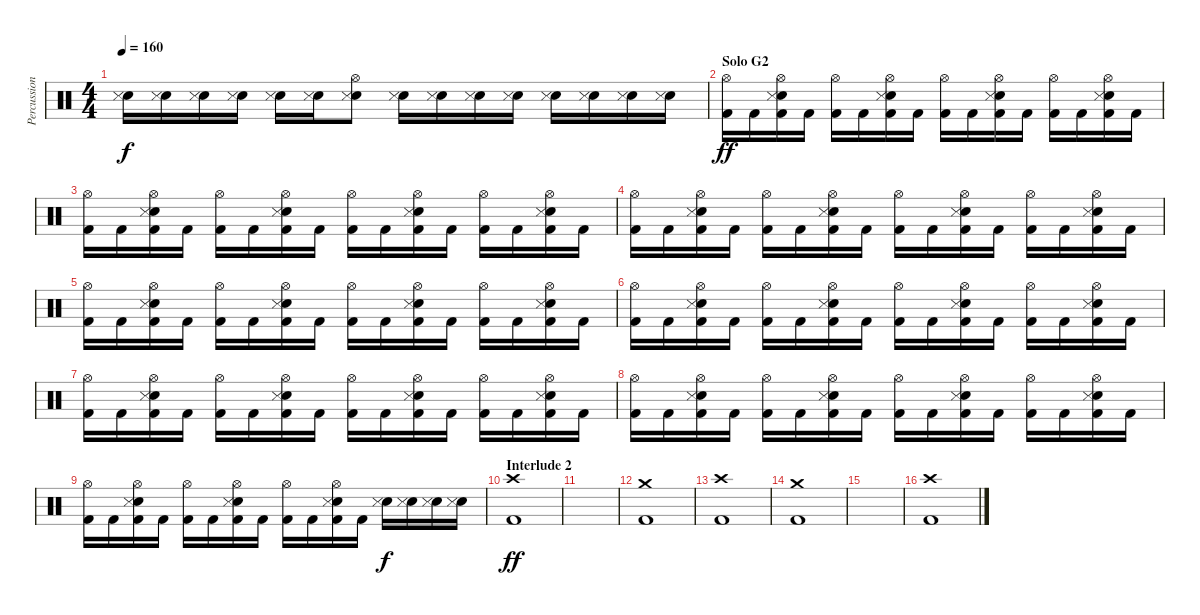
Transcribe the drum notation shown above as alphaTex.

\track ("Percussions" "Percussion") {instrument percussion}
\staff {score}
\articulation defaults
\ts (4 4)
\tempo 160
\clef neutral
\ks c
("Electric Snare (hit)" "Snare (side stick) 3").16{dy f} ("Electric Snare (hit)" "Snare (side stick) 3").16 ("Electric Snare (hit)" "Snare (side stick) 3").16 ("Electric Snare (hit)" "Snare (side stick) 3").16 ("Electric Snare (hit)" "Snare (side stick) 3").16 ("Electric Snare (hit)" "Snare (side stick) 3").16 ("Hi-Hat (open)" "Electric Snare (hit)" "Snare (side stick) 3").8 ("Electric Snare (hit)" "Snare (side stick) 3").16 ("Electric Snare (hit)" "Snare (side stick) 3").16 ("Electric Snare (hit)" "Snare (side stick) 3").16 ("Electric Snare (hit)" "Snare (side stick) 3").16 ("Electric Snare (hit)" "Snare (side stick) 3").16 ("Electric Snare (hit)" "Snare (side stick) 3").16 ("Electric Snare (hit)" "Snare (side stick) 3").16 ("Electric Snare (hit)" "Snare (side stick) 3").16 |
\section ("" "Solo G2")
("Hi-Hat (open)" "Kick (hit) 2").16{dy ff} "Kick (hit) 2".16 ("Hi-Hat (open)" "Electric Snare (hit)" "Snare (side stick) 3" "Kick (hit) 2").16 "Kick (hit) 2".16 ("Hi-Hat (open)" "Kick (hit) 2").16 "Kick (hit) 2".16 ("Hi-Hat (open)" "Electric Snare (hit)" "Snare (side stick) 3" "Kick (hit) 2").16 "Kick (hit) 2".16 ("Hi-Hat (open)" "Kick (hit) 2").16 "Kick (hit) 2".16 ("Hi-Hat (open)" "Electric Snare (hit)" "Snare (side stick) 3" "Kick (hit) 2").16 "Kick (hit) 2".16 ("Hi-Hat (open)" "Kick (hit) 2").16 "Kick (hit) 2".16 ("Hi-Hat (open)" "Electric Snare (hit)" "Snare (side stick) 3" "Kick (hit) 2").16 "Kick (hit) 2".16 |
("Hi-Hat (open)" "Kick (hit) 2").16 "Kick (hit) 2".16 ("Hi-Hat (open)" "Electric Snare (hit)" "Snare (side stick) 3" "Kick (hit) 2").16 "Kick (hit) 2".16 ("Hi-Hat (open)" "Kick (hit) 2").16 "Kick (hit) 2".16 ("Hi-Hat (open)" "Electric Snare (hit)" "Snare (side stick) 3" "Kick (hit) 2").16 "Kick (hit) 2".16 ("Hi-Hat (open)" "Kick (hit) 2").16 "Kick (hit) 2".16 ("Hi-Hat (open)" "Electric Snare (hit)" "Snare (side stick) 3" "Kick (hit) 2").16 "Kick (hit) 2".16 ("Hi-Hat (open)" "Kick (hit) 2").16 "Kick (hit) 2".16 ("Hi-Hat (open)" "Electric Snare (hit)" "Snare (side stick) 3" "Kick (hit) 2").16 "Kick (hit) 2".16 |
("Hi-Hat (open)" "Kick (hit) 2").16 "Kick (hit) 2".16 ("Hi-Hat (open)" "Electric Snare (hit)" "Snare (side stick) 3" "Kick (hit) 2").16 "Kick (hit) 2".16 ("Hi-Hat (open)" "Kick (hit) 2").16 "Kick (hit) 2".16 ("Hi-Hat (open)" "Electric Snare (hit)" "Snare (side stick) 3" "Kick (hit) 2").16 "Kick (hit) 2".16 ("Hi-Hat (open)" "Kick (hit) 2").16 "Kick (hit) 2".16 ("Hi-Hat (open)" "Electric Snare (hit)" "Snare (side stick) 3" "Kick (hit) 2").16 "Kick (hit) 2".16 ("Hi-Hat (open)" "Kick (hit) 2").16 "Kick (hit) 2".16 ("Hi-Hat (open)" "Electric Snare (hit)" "Snare (side stick) 3" "Kick (hit) 2").16 "Kick (hit) 2".16 |
("Hi-Hat (open)" "Kick (hit) 2").16 "Kick (hit) 2".16 ("Hi-Hat (open)" "Electric Snare (hit)" "Snare (side stick) 3" "Kick (hit) 2").16 "Kick (hit) 2".16 ("Hi-Hat (open)" "Kick (hit) 2").16 "Kick (hit) 2".16 ("Hi-Hat (open)" "Electric Snare (hit)" "Snare (side stick) 3" "Kick (hit) 2").16 "Kick (hit) 2".16 ("Hi-Hat (open)" "Kick (hit) 2").16 "Kick (hit) 2".16 ("Hi-Hat (open)" "Electric Snare (hit)" "Snare (side stick) 3" "Kick (hit) 2").16 "Kick (hit) 2".16 ("Hi-Hat (open)" "Kick (hit) 2").16 "Kick (hit) 2".16 ("Hi-Hat (open)" "Electric Snare (hit)" "Snare (side stick) 3" "Kick (hit) 2").16 "Kick (hit) 2".16 |
("Hi-Hat (open)" "Kick (hit) 2").16 "Kick (hit) 2".16 ("Hi-Hat (open)" "Electric Snare (hit)" "Snare (side stick) 3" "Kick (hit) 2").16 "Kick (hit) 2".16 ("Hi-Hat (open)" "Kick (hit) 2").16 "Kick (hit) 2".16 ("Hi-Hat (open)" "Electric Snare (hit)" "Snare (side stick) 3" "Kick (hit) 2").16 "Kick (hit) 2".16 ("Hi-Hat (open)" "Kick (hit) 2").16 "Kick (hit) 2".16 ("Hi-Hat (open)" "Electric Snare (hit)" "Snare (side stick) 3" "Kick (hit) 2").16 "Kick (hit) 2".16 ("Hi-Hat (open)" "Kick (hit) 2").16 "Kick (hit) 2".16 ("Hi-Hat (open)" "Electric Snare (hit)" "Snare (side stick) 3" "Kick (hit) 2").16 "Kick (hit) 2".16 |
("Hi-Hat (open)" "Kick (hit) 2").16 "Kick (hit) 2".16 ("Hi-Hat (open)" "Electric Snare (hit)" "Snare (side stick) 3" "Kick (hit) 2").16 "Kick (hit) 2".16 ("Hi-Hat (open)" "Kick (hit) 2").16 "Kick (hit) 2".16 ("Hi-Hat (open)" "Electric Snare (hit)" "Snare (side stick) 3" "Kick (hit) 2").16 "Kick (hit) 2".16 ("Hi-Hat (open)" "Kick (hit) 2").16 "Kick (hit) 2".16 ("Hi-Hat (open)" "Electric Snare (hit)" "Snare (side stick) 3" "Kick (hit) 2").16 "Kick (hit) 2".16 ("Hi-Hat (open)" "Kick (hit) 2").16 "Kick (hit) 2".16 ("Hi-Hat (open)" "Electric Snare (hit)" "Snare (side stick) 3" "Kick (hit) 2").16 "Kick (hit) 2".16 |
("Hi-Hat (open)" "Kick (hit) 2").16 "Kick (hit) 2".16 ("Hi-Hat (open)" "Electric Snare (hit)" "Snare (side stick) 3" "Kick (hit) 2").16 "Kick (hit) 2".16 ("Hi-Hat (open)" "Kick (hit) 2").16 "Kick (hit) 2".16 ("Hi-Hat (open)" "Electric Snare (hit)" "Snare (side stick) 3" "Kick (hit) 2").16 "Kick (hit) 2".16 ("Hi-Hat (open)" "Kick (hit) 2").16 "Kick (hit) 2".16 ("Hi-Hat (open)" "Electric Snare (hit)" "Snare (side stick) 3" "Kick (hit) 2").16 "Kick (hit) 2".16 ("Hi-Hat (open)" "Kick (hit) 2").16 "Kick (hit) 2".16 ("Hi-Hat (open)" "Electric Snare (hit)" "Snare (side stick) 3" "Kick (hit) 2").16 "Kick (hit) 2".16 |
("Hi-Hat (open)" "Kick (hit) 2").16 "Kick (hit) 2".16 ("Hi-Hat (open)" "Electric Snare (hit)" "Snare (side stick) 3" "Kick (hit) 2").16 "Kick (hit) 2".16 ("Hi-Hat (open)" "Kick (hit) 2").16 "Kick (hit) 2".16 ("Hi-Hat (open)" "Electric Snare (hit)" "Snare (side stick) 3" "Kick (hit) 2").16 "Kick (hit) 2".16 ("Hi-Hat (open)" "Kick (hit) 2").16 "Kick (hit) 2".16 ("Hi-Hat (open)" "Electric Snare (hit)" "Snare (side stick) 3" "Kick (hit) 2").16 "Kick (hit) 2".16 ("Electric Snare (hit)" "Snare (side stick) 3").16{dy f} ("Electric Snare (hit)" "Snare (side stick) 3").16 ("Electric Snare (hit)" "Snare (side stick) 3").16 ("Electric Snare (hit)" "Snare (side stick) 3").16 |
\section ("" "Interlude 2")
("Crash high (hit)" "Kick (hit) 2").1{dy ff} |
|
("Crash medium (hit)" "Kick (hit) 2").1 |
("Crash high (hit)" "Kick (hit) 2").1 |
("Crash medium (hit)" "Kick (hit) 2").1 |
|
("Crash high (hit)" "Kick (hit) 2").1
